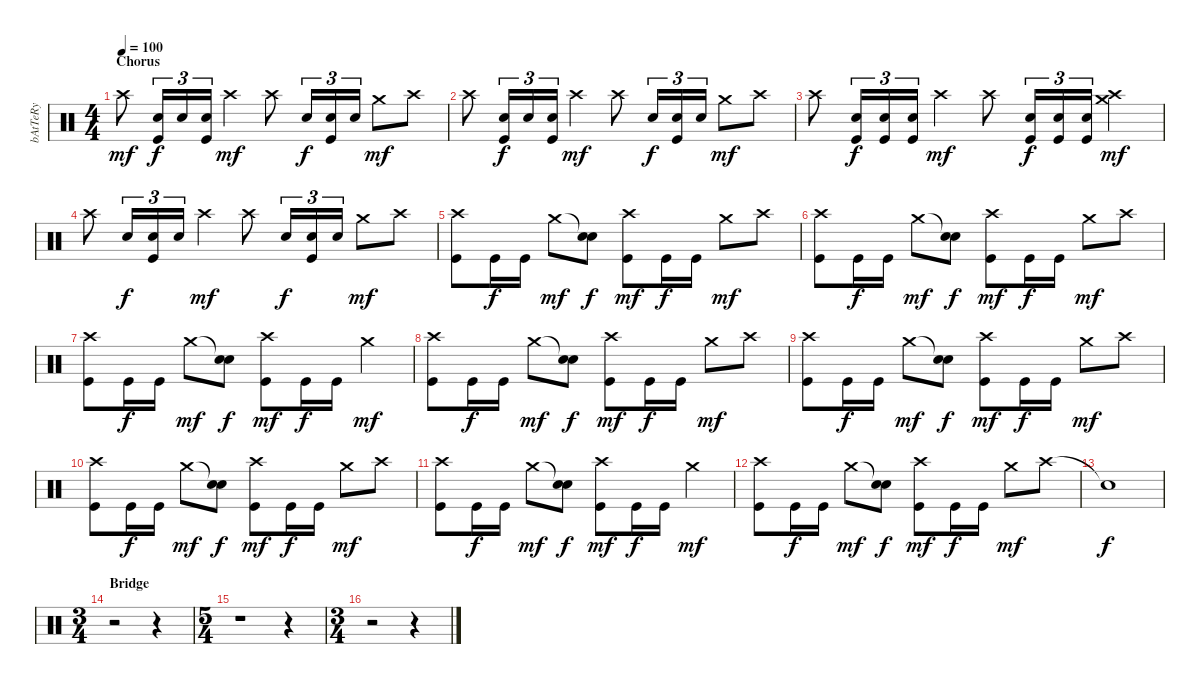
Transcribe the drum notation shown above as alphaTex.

\track ("bAtTeRy" "bAtTeRy") {instrument percussion}
\staff {score}
\articulation defaults
\ts (4 4)
\section ("" "Chorus")
\tempo 100
\clef neutral
\ks c "Crash high (hit)".8{dy mf}
("Electric Snare (hit)" "Kick (hit)").16{tu (3 2) dy f} "Electric Snare (hit)".16{tu (3 2)} ("Electric Snare (hit)" "Kick (hit)").16{tu (3 2)} "Crash high (hit)".4{dy mf} "Crash high (hit)".8 "Electric Snare (hit)".16{tu (3 2) dy f} ("Electric Snare (hit)" "Kick (hit)").16{tu (3 2)} "Electric Snare (hit)".16{tu (3 2)} "Crash medium (hit)".8{dy mf} "Crash high (hit)".8 |
"Crash high (hit)".8 ("Electric Snare (hit)" "Kick (hit)").16{tu (3 2) dy f} "Electric Snare (hit)".16{tu (3 2)} ("Electric Snare (hit)" "Kick (hit)").16{tu (3 2)} "Crash high (hit)".4{dy mf} "Crash high (hit)".8 "Electric Snare (hit)".16{tu (3 2) dy f} ("Electric Snare (hit)" "Kick (hit)").16{tu (3 2)} "Electric Snare (hit)".16{tu (3 2)} "Crash medium (hit)".8{dy mf} "Crash high (hit)".8 |
"Crash high (hit)".8 ("Snare (hit) 2" "Kick (hit)").16{tu (3 2) dy f} ("Snare (hit) 2" "Kick (hit)").16{tu (3 2)} ("Snare (hit) 2" "Kick (hit)").16{tu (3 2)} "Crash high (hit)".4{dy mf} "Crash high (hit)".8 ("Snare (hit) 2" "Kick (hit)").16{tu (3 2) dy f} ("Snare (hit) 2" "Kick (hit)").16{tu (3 2)} ("Snare (hit) 2" "Kick (hit)").16{tu (3 2)} ("Crash medium (hit)" "Crash high (hit)").4{dy mf} |
"Crash high (hit)".8 "Snare (hit) 2".16{tu (3 2) dy f} ("Snare (hit) 2" "Kick (hit)").16{tu (3 2)} "Snare (hit) 2".16{tu (3 2)} "Crash high (hit)".4{dy mf} "Crash high (hit)".8 "Snare (hit) 2".16{tu (3 2) dy f} ("Snare (hit) 2" "Kick (hit)").16{tu (3 2)} "Snare (hit) 2".16{tu (3 2)} "Crash medium (hit)".8{dy mf} "Crash high (hit)".8 |
("Crash high (hit)" "Kick (hit)").8 "Kick (hit)".16{dy f} "Kick (hit)".16 "Crash medium (hit)".8{dy mf} ("Snare (hit)"{t} "Electric Snare (hit)").8{dy f} ("Crash high (hit)" "Kick (hit)").8{dy mf} "Kick (hit)".16{dy f} "Kick (hit)".16 "Crash medium (hit)".8{dy mf} "Crash high (hit)".8 |
("Crash high (hit)" "Kick (hit)").8 "Kick (hit)".16{dy f} "Kick (hit)".16 "Crash medium (hit)".8{dy mf} ("Snare (hit)"{t} "Electric Snare (hit)").8{dy f} ("Crash high (hit)" "Kick (hit)").8{dy mf} "Kick (hit)".16{dy f} "Kick (hit)".16 "Crash medium (hit)".8{dy mf} "Crash high (hit)".8 |
("Crash high (hit)" "Kick (hit)").8 "Kick (hit)".16{dy f} "Kick (hit)".16 "Crash medium (hit)".8{dy mf} ("Snare (hit)"{t} "Electric Snare (hit)").8{dy f} ("Crash high (hit)" "Kick (hit)").8{dy mf} "Kick (hit)".16{dy f} "Kick (hit)".16 "Crash medium (hit)".4{dy mf} |
("Crash high (hit)" "Kick (hit)").8 "Kick (hit)".16{dy f} "Kick (hit)".16 "Crash medium (hit)".8{dy mf} ("Snare (hit)"{t} "Electric Snare (hit)").8{dy f} ("Crash high (hit)" "Kick (hit)").8{dy mf} "Kick (hit)".16{dy f} "Kick (hit)".16 "Crash medium (hit)".8{dy mf} "Crash high (hit)".8 |
("Crash high (hit)" "Kick (hit)").8 "Kick (hit)".16{dy f} "Kick (hit)".16 "Crash medium (hit)".8{dy mf} ("Snare (hit)"{t} "Electric Snare (hit)").8{dy f} ("Crash high (hit)" "Kick (hit)").8{dy mf} "Kick (hit)".16{dy f} "Kick (hit)".16 "Crash medium (hit)".8{dy mf} "Crash high (hit)".8 |
("Crash high (hit)" "Kick (hit)").8 "Kick (hit)".16{dy f} "Kick (hit)".16 "Crash medium (hit)".8{dy mf} ("Snare (hit)"{t} "Electric Snare (hit)").8{dy f} ("Crash high (hit)" "Kick (hit)").8{dy mf} "Kick (hit)".16{dy f} "Kick (hit)".16 "Crash medium (hit)".8{dy mf} "Crash high (hit)".8 |
("Crash high (hit)" "Kick (hit)").8 "Kick (hit)".16{dy f} "Kick (hit)".16 "Crash medium (hit)".8{dy mf} ("Snare (hit)"{t} "Electric Snare (hit)").8{dy f} ("Crash high (hit)" "Kick (hit)").8{dy mf} "Kick (hit)".16{dy f} "Kick (hit)".16 "Crash medium (hit)".4{dy mf} |
("Crash high (hit)" "Kick (hit)").8 "Kick (hit)".16{dy f} "Kick (hit)".16 "Crash medium (hit)".8{dy mf} ("Snare (hit)"{t} "Electric Snare (hit)").8{dy f} ("Crash high (hit)" "Kick (hit)").8{dy mf} "Kick (hit)".16{dy f} "Kick (hit)".16 "Crash medium (hit)".8{dy mf} "Crash high (hit)".8 |
"Snare (hit)"{t}.1{dy f} |
\ts (3 4)
\section ("" "Bridge")
r.2 r.4 |
\ts (5 4)
r.1 r.4 |
\ts (3 4)
r.2 r.4
